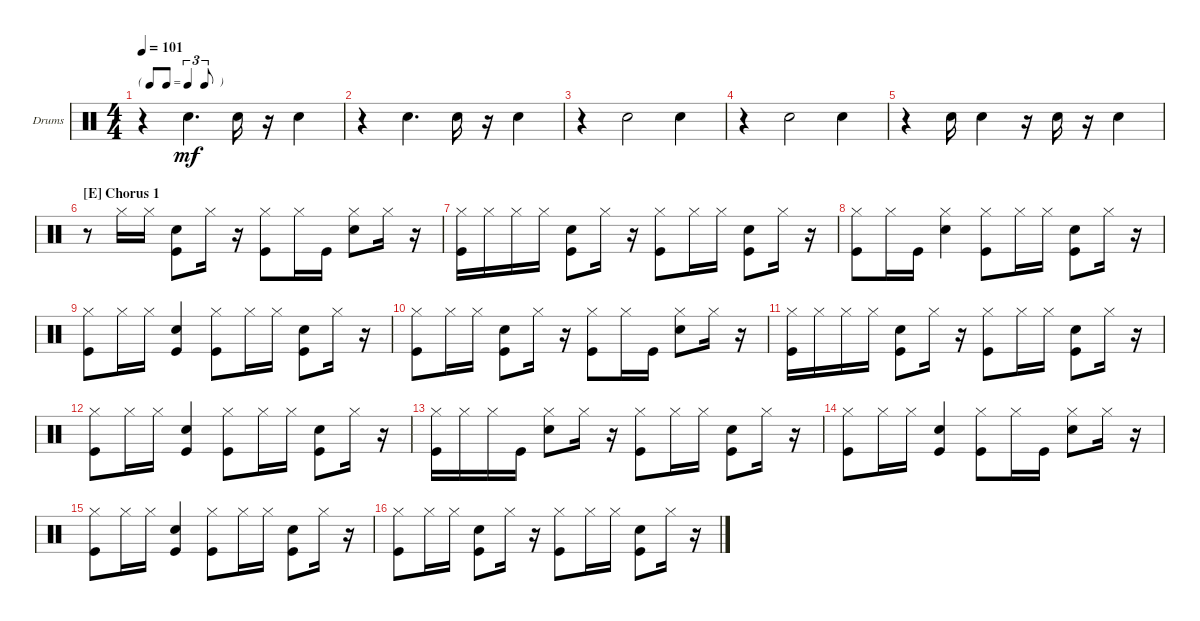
\bracketExtendMode groupsimilarinstruments
\firstSystemTrackNameOrientation horizontal
\otherSystemsTrackNameOrientation horizontal
\track ("Charlie Watts" "Drums") {instrument percussion}
\staff {score}
\articulation defaults
\ts (4 4)
\tf triplet8th
\tempo 101
\clef neutral
\scale
0.333333
\ks c
r.4{dy mf} "Snare (hit) 2".4{d} "Snare (hit) 2".16 r.16 "Snare (hit) 2".4 |
\scale
0.333333 r.4 "Snare (hit) 2".4{d} "Snare (hit) 2".16 r.16 "Snare (hit) 2".4 |
\scale
0.333333 r.4 "Snare (hit) 2".2 "Snare (hit) 2".4 |
\scale
0.333333 r.4 "Snare (hit) 2".2 "Snare (hit) 2".4 |
\scale
0.333333 r.4 "Snare (hit) 2".16 "Snare (hit) 2".4 r.16 "Snare (hit) 2".16 r.16 "Snare (hit) 2".4 |
\section ("E" "Chorus 1")
\scale
0.333333 r.8 "Hi-Hat (closed)".16 "Hi-Hat (closed)".16 ("Kick (hit)" "Snare (hit) 2").8 "Hi-Hat (closed)".16 r.16 ("Hi-Hat (closed)" "Kick (hit)").8 "Hi-Hat (closed)".16 "Kick (hit)".16 ("Hi-Hat (closed)" "Snare (hit) 2").8 "Hi-Hat (closed)".16 r.16 |
\scale
0.333333 ("Hi-Hat (closed)" "Kick (hit)").16 "Hi-Hat (closed)".16 "Hi-Hat (closed)".16 "Hi-Hat (closed)".16 ("Kick (hit)" "Snare (hit) 2").8 "Hi-Hat (closed)".16 r.16 ("Hi-Hat (closed)" "Kick (hit)").8 "Hi-Hat (closed)".16 "Hi-Hat (closed)".16 ("Kick (hit)" "Snare (hit) 2").8 "Hi-Hat (closed)".16 r.16 |
\scale
0.333333 ("Kick (hit)" "Hi-Hat (closed)").8 "Hi-Hat (closed)".16 "Kick (hit)".16 ("Hi-Hat (closed)" "Snare (hit) 2").4 ("Hi-Hat (closed)" "Kick (hit)").8 "Hi-Hat (closed)".16 "Hi-Hat (closed)".16 ("Kick (hit)" "Snare (hit) 2").8 "Hi-Hat (closed)".16 r.16 |
\scale
0.333333 ("Hi-Hat (closed)" "Kick (hit)").8 "Hi-Hat (closed)".16 "Hi-Hat (closed)".16 ("Kick (hit)" "Snare (hit) 2").4 ("Hi-Hat (closed)" "Kick (hit)").8 "Hi-Hat (closed)".16 "Hi-Hat (closed)".16 ("Kick (hit)" "Snare (hit) 2").8 "Hi-Hat (closed)".16 r.16 |
\scale
0.333333 ("Kick (hit)" "Hi-Hat (closed)").8 "Hi-Hat (closed)".16 "Hi-Hat (closed)".16 ("Kick (hit)" "Snare (hit) 2").8 "Hi-Hat (closed)".16 r.16 ("Kick (hit)" "Hi-Hat (closed)").8 "Hi-Hat (closed)".16 "Kick (hit)".16 ("Hi-Hat (closed)" "Snare (hit) 2").8 "Hi-Hat (closed)".16 r.16 |
\scale
0.333333 ("Kick (hit)" "Hi-Hat (closed)").16 "Hi-Hat (closed)".16 "Hi-Hat (closed)".16 "Hi-Hat (closed)".16 ("Kick (hit)" "Snare (hit) 2").8 "Hi-Hat (closed)".16 r.16 ("Kick (hit)" "Hi-Hat (closed)").8 "Hi-Hat (closed)".16 "Hi-Hat (closed)".16 ("Kick (hit)" "Snare (hit) 2").8 "Hi-Hat (closed)".16 r.16 |
\scale
0.333333 ("Hi-Hat (closed)" "Kick (hit)").8 "Hi-Hat (closed)".16 "Hi-Hat (closed)".16 ("Kick (hit)" "Snare (hit) 2").4 ("Hi-Hat (closed)" "Kick (hit)").8 "Hi-Hat (closed)".16 "Hi-Hat (closed)".16 ("Kick (hit)" "Snare (hit) 2").8 "Hi-Hat (closed)".16 r.16 |
\scale
0.333333 ("Hi-Hat (closed)" "Kick (hit)").16 "Hi-Hat (closed)".16 "Hi-Hat (closed)".16 "Kick (hit)".16 ("Hi-Hat (closed)" "Snare (hit) 2").8 "Hi-Hat (closed)".16 r.16 ("Hi-Hat (closed)" "Kick (hit)").8 "Hi-Hat (closed)".16 "Hi-Hat (closed)".16 ("Kick (hit)" "Snare (hit) 2").8 "Hi-Hat (closed)".16 r.16 |
\scale
0.333333 ("Hi-Hat (closed)" "Kick (hit)").8 "Hi-Hat (closed)".16 "Hi-Hat (closed)".16 ("Kick (hit)" "Snare (hit) 2").4 ("Hi-Hat (closed)" "Kick (hit)").8 "Hi-Hat (closed)".16 "Kick (hit)".16 ("Hi-Hat (closed)" "Snare (hit) 2").8 "Hi-Hat (closed)".16 r.16 |
\scale
0.333333 ("Hi-Hat (closed)" "Kick (hit)").8 "Hi-Hat (closed)".16 "Hi-Hat (closed)".16 ("Kick (hit)" "Snare (hit) 2").4 ("Kick (hit)" "Hi-Hat (closed)").8 "Hi-Hat (closed)".16 "Hi-Hat (closed)".16 ("Kick (hit)" "Snare (hit) 2").8 "Hi-Hat (closed)".16 r.16 |
\scale
0.333333 ("Hi-Hat (closed)" "Kick (hit)").8 "Hi-Hat (closed)".16 "Hi-Hat (closed)".16 ("Kick (hit)" "Snare (hit) 2").8 "Hi-Hat (closed)".16 r.16 ("Kick (hit)" "Hi-Hat (closed)").8 "Hi-Hat (closed)".16 "Hi-Hat (closed)".16 ("Kick (hit)" "Snare (hit) 2").8 "Hi-Hat (closed)".16 r.16
